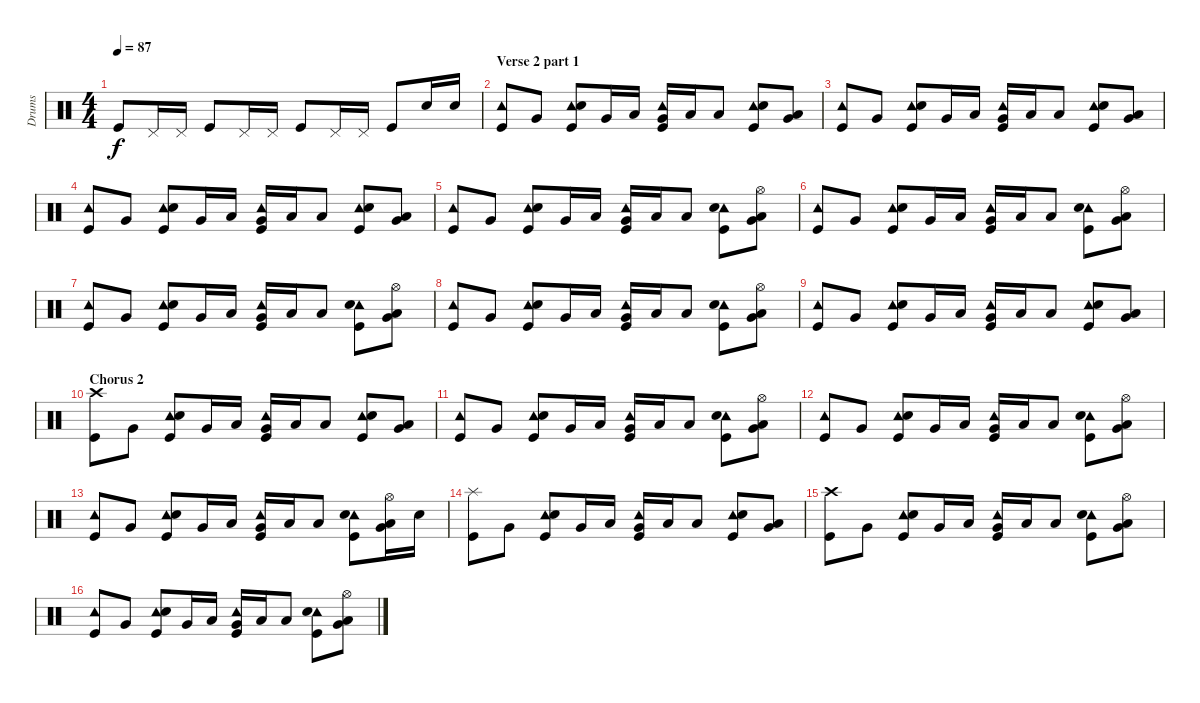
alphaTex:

\track ("Drums" "Drums") {instrument percussion}
\staff {score}
\articulation defaults
\ts (4 4)
\tempo 87
\clef neutral
\ks c "Kick (hit)".8{dy f} "Pedal Hi-Hat (hit)".16 "Pedal Hi-Hat (hit)".16 "Kick (hit)".8 "Pedal Hi-Hat (hit)".16 "Pedal Hi-Hat (hit)".16 "Kick (hit)".8 "Pedal Hi-Hat (hit)".16 "Pedal Hi-Hat (hit)".16 "Kick (hit)".8 "Snare (hit) 2".16 "Snare (hit) 2".16
|
\section ("" "Verse 2 part 1")
("Tambourine (hit)" "Kick (hit)").8 "Very Low Tom (hit)".8 ("Tambourine (hit)" "Snare (hit) 2" "Kick (hit)").8 "Very Low Tom (hit)".16 "Low Tom (hit)".16 ("Tambourine (hit)" "Very Low Tom (hit)" "Kick (hit)").16 "Low Tom (hit)".16 "Low Floor Tom (hit)".8 ("Tambourine (hit)" "Snare (hit) 2" "Kick (hit)").8 ("Low Tom (hit)" "Very Low Tom (hit)").8 |
("Tambourine (hit)" "Kick (hit)").8 "Very Low Tom (hit)".8 ("Tambourine (hit)" "Snare (hit) 2" "Kick (hit)").8 "Very Low Tom (hit)".16 "Low Tom (hit)".16 ("Tambourine (hit)" "Very Low Tom (hit)" "Kick (hit)").16 "Low Tom (hit)".16 "Low Floor Tom (hit)".8 ("Tambourine (hit)" "Snare (hit) 2" "Kick (hit)").8 ("Low Tom (hit)" "Very Low Tom (hit)").8 |
("Tambourine (hit)" "Kick (hit)").8 "Very Low Tom (hit)".8 ("Tambourine (hit)" "Snare (hit) 2" "Kick (hit)").8 "Very Low Tom (hit)".16 "Low Tom (hit)".16 ("Tambourine (hit)" "Very Low Tom (hit)" "Kick (hit)").16 "Low Tom (hit)".16 "Low Floor Tom (hit)".8 ("Tambourine (hit)" "Snare (hit) 2" "Kick (hit)").8 ("Low Tom (hit)" "Very Low Tom (hit)").8 |
("Tambourine (hit)" "Kick (hit)").8 "Very Low Tom (hit)".8 ("Tambourine (hit)" "Snare (hit) 2" "Kick (hit)").8 "Very Low Tom (hit)".16 "Low Tom (hit)".16 ("Tambourine (hit)" "Very Low Tom (hit)" "Kick (hit)").16 "Low Tom (hit)".16 "Low Floor Tom (hit)".8 ("Tambourine (hit)" "Snare (hit) 2" "Kick (hit)").8 ("Hi-Hat (open)" "Low Tom (hit)" "Very Low Tom (hit)").8 |
("Tambourine (hit)" "Kick (hit)").8 "Very Low Tom (hit)".8 ("Tambourine (hit)" "Snare (hit) 2" "Kick (hit)").8 "Very Low Tom (hit)".16 "Low Tom (hit)".16 ("Tambourine (hit)" "Very Low Tom (hit)" "Kick (hit)").16 "Low Tom (hit)".16 "Low Floor Tom (hit)".8 ("Tambourine (hit)" "Snare (hit) 2" "Kick (hit)").8 ("Hi-Hat (open)" "Low Tom (hit)" "Very Low Tom (hit)").8 |
("Tambourine (hit)" "Kick (hit)").8 "Very Low Tom (hit)".8 ("Tambourine (hit)" "Snare (hit) 2" "Kick (hit)").8 "Very Low Tom (hit)".16 "Low Tom (hit)".16 ("Tambourine (hit)" "Very Low Tom (hit)" "Kick (hit)").16 "Low Tom (hit)".16 "Low Floor Tom (hit)".8 ("Tambourine (hit)" "Snare (hit) 2" "Kick (hit)").8 ("Hi-Hat (open)" "Low Tom (hit)" "Very Low Tom (hit)").8 |
("Tambourine (hit)" "Kick (hit)").8 "Very Low Tom (hit)".8 ("Tambourine (hit)" "Snare (hit) 2" "Kick (hit)").8 "Very Low Tom (hit)".16 "Low Tom (hit)".16 ("Tambourine (hit)" "Very Low Tom (hit)" "Kick (hit)").16 "Low Tom (hit)".16 "Low Floor Tom (hit)".8 ("Tambourine (hit)" "Snare (hit) 2" "Kick (hit)").8 ("Hi-Hat (open)" "Low Tom (hit)" "Very Low Tom (hit)").8 |
("Tambourine (hit)" "Kick (hit)").8 "Very Low Tom (hit)".8 ("Tambourine (hit)" "Snare (hit) 2" "Kick (hit)").8 "Very Low Tom (hit)".16 "Low Tom (hit)".16 ("Tambourine (hit)" "Very Low Tom (hit)" "Kick (hit)").16 "Low Tom (hit)".16 "Low Floor Tom (hit)".8 ("Tambourine (hit)" "Snare (hit) 2" "Kick (hit)").8 ("Low Tom (hit)" "Very Low Tom (hit)").8 |
\section ("" "Chorus 2")
("Crash high (hit)" "Kick (hit)").8 "Very Low Tom (hit)".8 ("Tambourine (hit)" "Snare (hit) 2" "Kick (hit)").8 "Very Low Tom (hit)".16 "Low Tom (hit)".16 ("Tambourine (hit)" "Very Low Tom (hit)" "Kick (hit)").16 "Low Tom (hit)".16 "Low Floor Tom (hit)".8 ("Tambourine (hit)" "Snare (hit) 2" "Kick (hit)").8 ("Low Tom (hit)" "Very Low Tom (hit)").8 |
("Tambourine (hit)" "Kick (hit)").8 "Very Low Tom (hit)".8 ("Tambourine (hit)" "Snare (hit) 2" "Kick (hit)").8 "Very Low Tom (hit)".16 "Low Tom (hit)".16 ("Tambourine (hit)" "Very Low Tom (hit)" "Kick (hit)").16 "Low Tom (hit)".16 "Low Floor Tom (hit)".8 ("Tambourine (hit)" "Snare (hit) 2" "Kick (hit)").8 ("Hi-Hat (open)" "Low Tom (hit)" "Very Low Tom (hit)").8 |
("Tambourine (hit)" "Kick (hit)").8 "Very Low Tom (hit)".8 ("Tambourine (hit)" "Snare (hit) 2" "Kick (hit)").8 "Very Low Tom (hit)".16 "Low Tom (hit)".16 ("Tambourine (hit)" "Very Low Tom (hit)" "Kick (hit)").16 "Low Tom (hit)".16 "Low Floor Tom (hit)".8 ("Tambourine (hit)" "Snare (hit) 2" "Kick (hit)").8 ("Hi-Hat (open)" "Low Tom (hit)" "Very Low Tom (hit)").8 |
("Tambourine (hit)" "Kick (hit)").8 "Very Low Tom (hit)".8 ("Tambourine (hit)" "Snare (hit) 2" "Kick (hit)").8 "Very Low Tom (hit)".16 "Low Tom (hit)".16 ("Tambourine (hit)" "Very Low Tom (hit)" "Kick (hit)").16 "Low Tom (hit)".16 "Low Floor Tom (hit)".8 ("Tambourine (hit)" "Snare (hit) 2" "Kick (hit)").8 ("Hi-Hat (open)" "Low Tom (hit)" "Very Low Tom (hit)").16 "Snare (hit) 2".16 |
("Splash (hit)" "Kick (hit)").8 "Very Low Tom (hit)".8 ("Tambourine (hit)" "Snare (hit) 2" "Kick (hit)").8 "Very Low Tom (hit)".16 "Low Tom (hit)".16 ("Tambourine (hit)" "Very Low Tom (hit)" "Kick (hit)").16 "Low Tom (hit)".16 "Low Floor Tom (hit)".8 ("Tambourine (hit)" "Snare (hit) 2" "Kick (hit)").8 ("Low Tom (hit)" "Very Low Tom (hit)").8 |
("Crash high (hit)" "Kick (hit)").8 "Very Low Tom (hit)".8 ("Tambourine (hit)" "Snare (hit) 2" "Kick (hit)").8 "Very Low Tom (hit)".16 "Low Tom (hit)".16 ("Tambourine (hit)" "Very Low Tom (hit)" "Kick (hit)").16 "Low Tom (hit)".16 "Low Floor Tom (hit)".8 ("Tambourine (hit)" "Snare (hit) 2" "Kick (hit)").8 ("Hi-Hat (open)" "Low Tom (hit)" "Very Low Tom (hit)").8 |
("Tambourine (hit)" "Kick (hit)").8 "Very Low Tom (hit)".8 ("Tambourine (hit)" "Snare (hit) 2" "Kick (hit)").8 "Very Low Tom (hit)".16 "Low Tom (hit)".16 ("Tambourine (hit)" "Very Low Tom (hit)" "Kick (hit)").16 "Low Tom (hit)".16 "Low Floor Tom (hit)".8 ("Tambourine (hit)" "Snare (hit) 2" "Kick (hit)").8 ("Hi-Hat (open)" "Low Tom (hit)" "Very Low Tom (hit)").8
